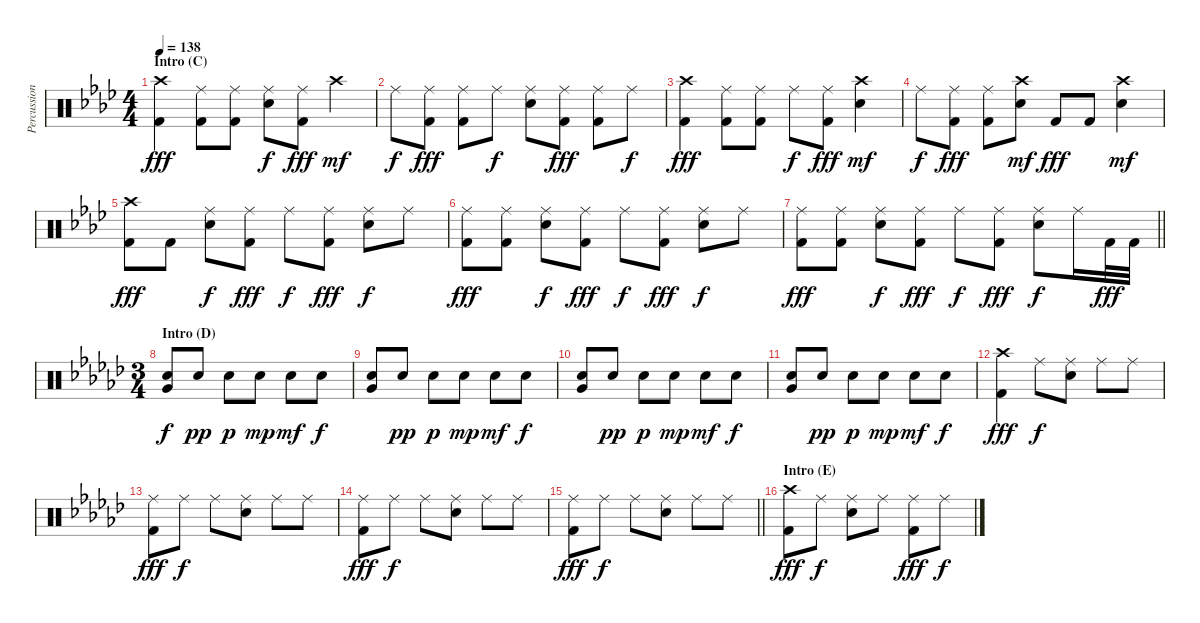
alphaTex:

\track ("Percussion" "Percussion") {instrument percussion}
\staff {score}
\articulation defaults
\ts (4 4)
\section ("" "Intro (C)")
\tempo 138
\clef neutral
\ks fminor
("Crash high (hit)" "Kick (hit) 2").4{dy fff} ("Ride (middle)" "Kick (hit) 2").8 ("Ride (middle)" "Kick (hit) 2").8 ("Ride (middle)" "Electric Snare (hit)").8{dy f} ("Ride (middle)" "Kick (hit) 2").8{dy fff} "Crash high (hit)".4{dy mf} |
"Ride (middle)".8{dy f} ("Ride (middle)" "Kick (hit) 2").8{dy fff} ("Ride (middle)" "Kick (hit) 2").8 "Ride (middle)".8{dy f} ("Ride (middle)" "Electric Snare (hit)").8 ("Ride (middle)" "Kick (hit) 2").8{dy fff} ("Ride (middle)" "Kick (hit) 2").8 "Ride (middle)".8{dy f} |
("Crash high (hit)" "Kick (hit) 2").4{dy fff} ("Ride (middle)" "Kick (hit) 2").8 ("Ride (middle)" "Kick (hit) 2").8 "Ride (middle)".8{dy f} ("Ride (middle)" "Kick (hit) 2").8{dy fff} ("Crash high (hit)" "Electric Snare (hit)").4{dy mf} |
"Ride (middle)".8{dy f} ("Ride (middle)" "Kick (hit) 2").8{dy fff} ("Ride (middle)" "Kick (hit) 2").8 ("Crash high (hit)" "Electric Snare (hit)").8{dy mf} "Kick (hit) 2".8{dy fff} "Kick (hit) 2".8 ("Crash high (hit)" "Electric Snare (hit)").4{dy mf} |
("Crash high (hit)" "Kick (hit) 2").8{dy fff} "Kick (hit) 2".8 ("Ride (middle)" "Electric Snare (hit)").8{dy f} ("Ride (middle)" "Kick (hit) 2").8{dy fff} "Ride (middle)".8{dy f} ("Ride (middle)" "Kick (hit) 2").8{dy fff} ("Ride (middle)" "Electric Snare (hit)").8{dy f} "Ride (middle)".8 |
("Ride (middle)" "Kick (hit) 2").8{dy fff} ("Ride (middle)" "Kick (hit) 2").8 ("Ride (middle)" "Electric Snare (hit)").8{dy f} ("Ride (middle)" "Kick (hit) 2").8{dy fff} "Ride (middle)".8{dy f} ("Ride (middle)" "Kick (hit) 2").8{dy fff} ("Ride (middle)" "Electric Snare (hit)").8{dy f} "Ride (middle)".8 |
\barLineRight lightlight
("Ride (middle)" "Kick (hit) 2").8{dy fff} ("Ride (middle)" "Kick (hit) 2").8 ("Ride (middle)" "Electric Snare (hit)").8{dy f} ("Ride (middle)" "Kick (hit) 2").8{dy fff} "Ride (middle)".8{dy f} ("Ride (middle)" "Kick (hit) 2").8{dy fff} ("Ride (middle)" "Electric Snare (hit)").8{dy f} "Ride (middle)".16 "Kick (hit) 2".32{dy fff} "Kick (hit) 2".32 |
\ts (3 4)
\section ("" "Intro (D)")
\ks ebminor
("Very Low Tom (hit)" "Electric Snare (hit)").8{dy f} "Electric Snare (hit)".8{dy pp} "Electric Snare (hit)".8{dy p} "Electric Snare (hit)".8{dy mp} "Electric Snare (hit)".8{dy mf} "Electric Snare (hit)".8{dy f} |
("Very Low Tom (hit)" "Electric Snare (hit)").8 "Electric Snare (hit)".8{dy pp} "Electric Snare (hit)".8{dy p} "Electric Snare (hit)".8{dy mp} "Electric Snare (hit)".8{dy mf} "Electric Snare (hit)".8{dy f} |
("Very Low Tom (hit)" "Electric Snare (hit)").8 "Electric Snare (hit)".8{dy pp} "Electric Snare (hit)".8{dy p} "Electric Snare (hit)".8{dy mp} "Electric Snare (hit)".8{dy mf} "Electric Snare (hit)".8{dy f} |
("Very Low Tom (hit)" "Electric Snare (hit)").8 "Electric Snare (hit)".8{dy pp} "Electric Snare (hit)".8{dy p} "Electric Snare (hit)".8{dy mp} "Electric Snare (hit)".8{dy mf} "Electric Snare (hit)".8{dy f} |
("Crash high (hit)" "Kick (hit) 2").4{dy fff} "Ride (middle)".8{dy f} ("Ride (middle)" "Electric Snare (hit)").8 "Ride (middle)".8 "Ride (middle)".8 |
("Ride (middle)" "Kick (hit) 2").8{dy fff} "Ride (middle)".8{dy f} "Ride (middle)".8 ("Ride (middle)" "Electric Snare (hit)").8 "Ride (middle)".8 "Ride (middle)".8 |
("Ride (middle)" "Kick (hit) 2").8{dy fff} "Ride (middle)".8{dy f} "Ride (middle)".8 ("Ride (middle)" "Electric Snare (hit)").8 "Ride (middle)".8 "Ride (middle)".8 |
\barLineRight lightlight
("Ride (middle)" "Kick (hit) 2").8{dy fff} "Ride (middle)".8{dy f} "Ride (middle)".8 ("Ride (middle)" "Electric Snare (hit)").8 "Ride (middle)".8 "Ride (middle)".8 |
\section ("" "Intro (E)")
("Crash high (hit)" "Kick (hit) 2").8{dy fff} "Ride (middle)".8{dy f} ("Ride (middle)" "Electric Snare (hit)").8 "Ride (middle)".8 ("Ride (middle)" "Kick (hit) 2").8{dy fff} "Ride (middle)".8{dy f}
